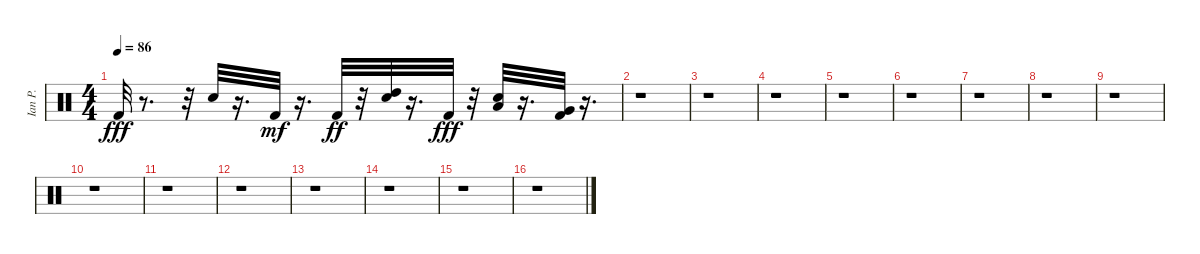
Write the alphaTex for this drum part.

\track ("Ian P." "Ian P.") {instrument percussion}
\staff {score}
\articulation defaults
\ts (4 4)
\tempo 86
\clef neutral
\ks c "Kick (hit) 2".32{dy fff}
r.8{d} r.32 "Snare (hit) 2".32 r.16{d} "Kick (hit) 2".32{dy mf} r.16{d} "Kick (hit) 2".32{dy ff} r.32 ("High Tom (hit)" "Snare (hit) 2").32 r.16{d} "Kick (hit) 2".32{dy fff} r.32 ("Low Tom (hit)" "Snare (hit) 2").32 r.16{d} ("Very Low Tom (hit)" "Kick (hit) 2").32 r.16{d} |
r.1 |
r.1 |
r.1 |
r.1 |
r.1 |
r.1 |
r.1 |
r.1 |
r.1 |
r.1 |
r.1 |
r.1 |
r.1 |
r.1 |
r.1
